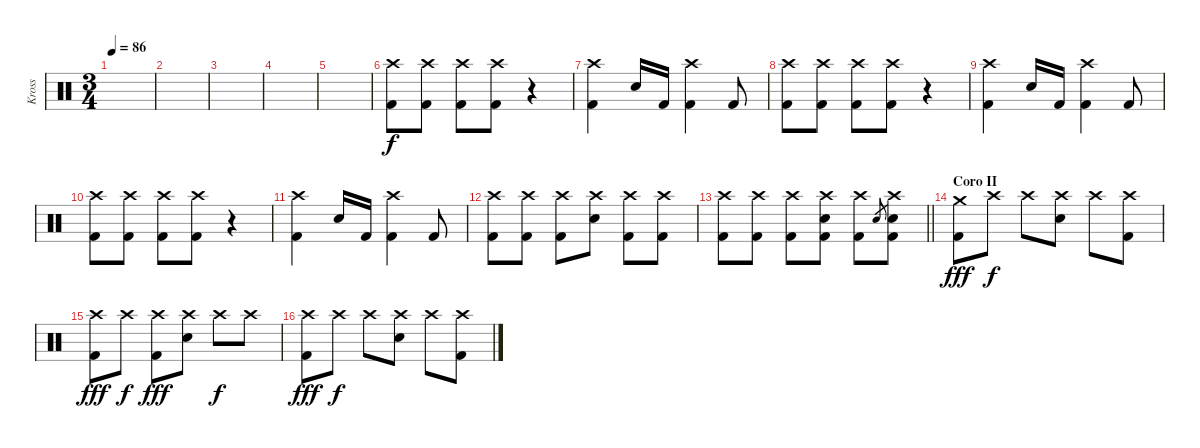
\track ("Kross" "Kross") {instrument percussion}
\staff {score}
\articulation defaults
\ts (3 4)
\tempo 86
\clef neutral
\ks c
|
|
|
|
|
("Crash high (hit)" "Kick (hit) 2").8 ("Crash high (hit)" "Kick (hit) 2").8 ("Crash high (hit)" "Kick (hit) 2").8 ("Crash high (hit)" "Kick (hit) 2").8 r.4 |
("Crash high (hit)" "Kick (hit) 2").4 "Electric Snare (hit)".16 "Kick (hit) 2".16 ("Crash high (hit)" "Kick (hit) 2").4 "Kick (hit) 2".8 |
("Crash high (hit)" "Kick (hit) 2").8 ("Crash high (hit)" "Kick (hit) 2").8 ("Crash high (hit)" "Kick (hit) 2").8 ("Crash high (hit)" "Kick (hit) 2").8 r.4 |
("Crash high (hit)" "Kick (hit) 2").4 "Electric Snare (hit)".16 "Kick (hit) 2".16 ("Crash high (hit)" "Kick (hit) 2").4 "Kick (hit) 2".8 |
("Crash high (hit)" "Kick (hit) 2").8 ("Crash high (hit)" "Kick (hit) 2").8 ("Crash high (hit)" "Kick (hit) 2").8 ("Crash high (hit)" "Kick (hit) 2").8 r.4 |
("Crash high (hit)" "Kick (hit) 2").4 "Electric Snare (hit)".16 "Kick (hit) 2".16 ("Crash high (hit)" "Kick (hit) 2").4 "Kick (hit) 2".8 |
("Crash high (hit)" "Kick (hit) 2").8 ("Crash high (hit)" "Kick (hit) 2").8 ("Crash high (hit)" "Kick (hit) 2").8 ("Crash high (hit)" "Electric Snare (hit)").8 ("Crash high (hit)" "Kick (hit) 2").8 ("Crash high (hit)" "Kick (hit) 2").8 |
\barLineRight lightlight
("Crash high (hit)" "Kick (hit) 2").8 ("Crash high (hit)" "Kick (hit) 2").8 ("Crash high (hit)" "Kick (hit) 2").8 ("Crash high (hit)" "Electric Snare (hit)" "Kick (hit) 2").8 ("Crash high (hit)" "Kick (hit) 2").8 "Electric Snare (hit)".8{gr} ("Crash high (hit)" "Electric Snare (hit)" "Kick (hit) 2").8 |
\section ("" "Coro II")
("Crash medium (hit)" "Kick (hit) 2").8{dy fff} "Crash high (hit)".8{dy f} "Crash high (hit)".8 ("Crash high (hit)" "Electric Snare (hit)").8 "Crash high (hit)".8 ("Crash high (hit)" "Kick (hit) 2").8 |
("Crash high (hit)" "Kick (hit) 2").8{dy fff} "Crash high (hit)".8{dy f} ("Crash high (hit)" "Kick (hit) 2").8{dy fff} ("Crash high (hit)" "Electric Snare (hit)").8 "Crash high (hit)".8{dy f} "Crash high (hit)".8 |
("Crash high (hit)" "Kick (hit) 2").8{dy fff} "Crash high (hit)".8{dy f} "Crash high (hit)".8 ("Crash high (hit)" "Electric Snare (hit)").8 "Crash high (hit)".8 ("Crash high (hit)" "Kick (hit) 2").8
